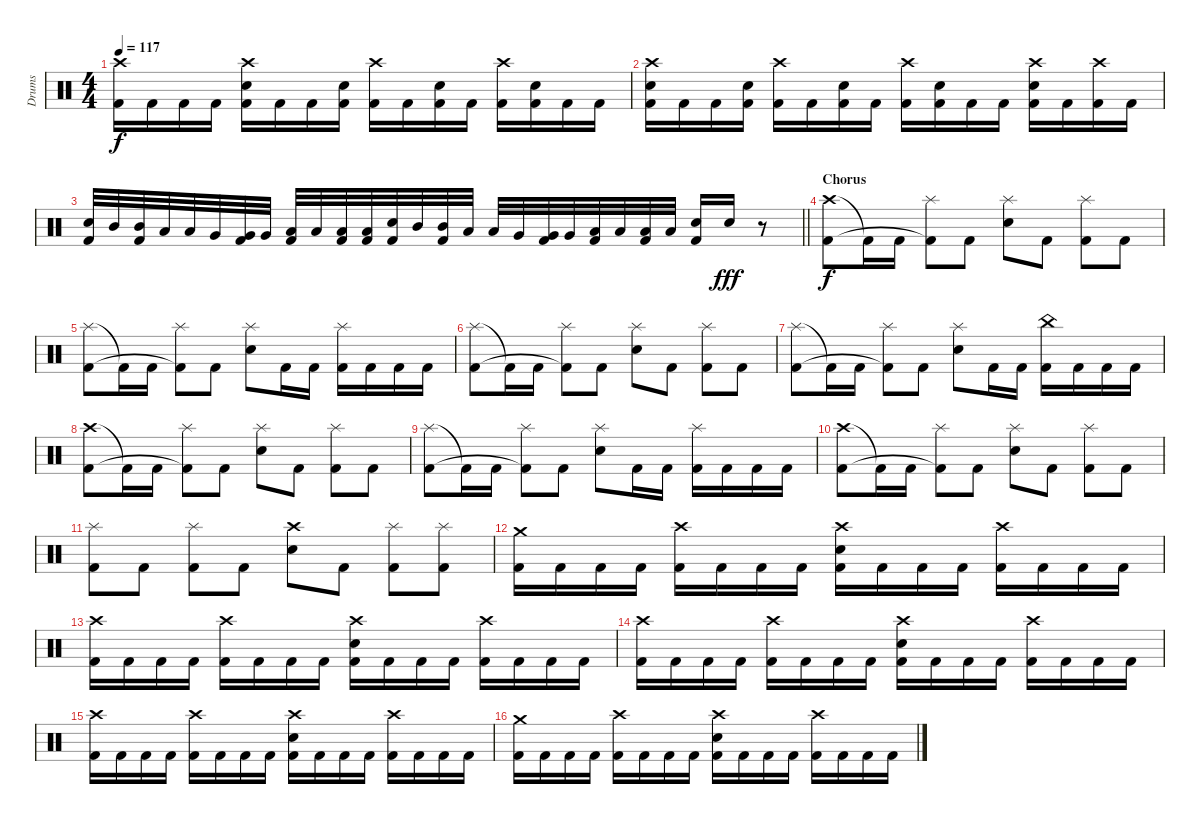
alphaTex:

\track ("Drums" "Drums") {instrument percussion}
\staff {score}
\articulation defaults
\ts (4 4)
\tempo 117
\clef neutral
\ks c
("Crash high (hit)" "Kick (hit) 2").16{dy f} "Kick (hit) 2".16 "Kick (hit) 2".16 "Kick (hit) 2".16 ("Crash high (hit)" "Electric Snare (hit)" "Kick (hit) 2").16 "Kick (hit) 2".16 "Kick (hit) 2".16 ("Electric Snare (hit)" "Kick (hit) 2").16 ("Crash high (hit)" "Kick (hit) 2").16 "Kick (hit) 2".16 ("Electric Snare (hit)" "Kick (hit) 2").16 "Kick (hit) 2".16 ("Crash high (hit)" "Kick (hit) 2").16 ("Electric Snare (hit)" "Kick (hit) 2").16 "Kick (hit) 2".16 "Kick (hit) 2".16 |
("Crash high (hit)" "Electric Snare (hit)" "Kick (hit) 2").16 "Kick (hit) 2".16 "Kick (hit) 2".16 ("Electric Snare (hit)" "Kick (hit) 2").16 ("Crash high (hit)" "Kick (hit) 2").16 "Kick (hit) 2".16 ("Electric Snare (hit)" "Kick (hit) 2").16 "Kick (hit) 2".16 ("Crash high (hit)" "Kick (hit) 2").16 ("Electric Snare (hit)" "Kick (hit) 2").16 "Kick (hit) 2".16 "Kick (hit) 2".16 ("Crash high (hit)" "Electric Snare (hit)" "Kick (hit) 2").16 "Kick (hit) 2".16 ("Crash high (hit)" "Kick (hit) 2").16 "Kick (hit) 2".16 |
\barLineRight lightlight
("Electric Snare (hit)" "Kick (hit) 2").32 "Mid Tom (hit)".32 ("Mid Tom (hit)" "Kick (hit) 2").32 "Low Tom (hit)".32 "Low Tom (hit)".32 "Very Low Tom (hit)".32 ("Very Low Tom (hit)" "Kick (hit) 2").32 "Very Low Tom (hit)".32 ("Low Floor Tom (hit)" "Kick (hit) 2").32 "Low Floor Tom (hit)".32 ("Low Floor Tom (hit)" "Kick (hit) 2").32 ("Low Floor Tom (hit)" "Kick (hit) 2").32 ("Electric Snare (hit)" "Kick (hit) 2").32 "Mid Tom (hit)".32 ("Mid Tom (hit)" "Kick (hit) 2").32 "Low Tom (hit)".32 "Low Tom (hit)".32 "Very Low Tom (hit)".32 ("Very Low Tom (hit)" "Kick (hit) 2").32 "Very Low Tom (hit)".32 ("Low Floor Tom (hit)" "Kick (hit) 2").32 "Low Floor Tom (hit)".32 ("Low Floor Tom (hit)" "Kick (hit) 2").32 "Low Floor Tom (hit)".32 ("Electric Snare (hit)" "Kick (hit) 2").16 "Electric Snare (hit)".16{dy fff} r.8 |
\section ("" "Chorus")
("Crash high (hit)" "Kick (hit) 2").8{dy f} "Kick (hit) 2"{t}.16 "Kick (hit) 2".16 ("Splash (hit)" "Kick (hit) 2"{t}).8 "Kick (hit) 2".8 ("Splash (hit)" "Electric Snare (hit)").8 "Kick (hit) 2".8 ("Splash (hit)" "Kick (hit) 2").8 "Kick (hit) 2".8 |
("Splash (hit)" "Kick (hit) 2").8 "Kick (hit) 2"{t}.16 "Kick (hit) 2".16 ("Splash (hit)" "Kick (hit) 2"{t}).8 "Kick (hit) 2".8 ("Splash (hit)" "Electric Snare (hit)").8 "Kick (hit) 2".16 "Kick (hit) 2".16 ("Splash (hit)" "Kick (hit) 2").16 "Kick (hit) 2".16 "Kick (hit) 2".16 "Kick (hit) 2".16 |
("Splash (hit)" "Kick (hit) 2").8 "Kick (hit) 2"{t}.16 "Kick (hit) 2".16 ("Splash (hit)" "Kick (hit) 2"{t}).8 "Kick (hit) 2".8 ("Splash (hit)" "Electric Snare (hit)").8 "Kick (hit) 2".8 ("Splash (hit)" "Kick (hit) 2").8 "Kick (hit) 2".8 |
("Splash (hit)" "Kick (hit) 2").8 "Kick (hit) 2"{t}.16 "Kick (hit) 2".16 ("Splash (hit)" "Kick (hit) 2"{t}).8 "Kick (hit) 2".8 ("Splash (hit)" "Electric Snare (hit)").8 "Kick (hit) 2".16 "Kick (hit) 2".16 ("China (hit)" "Kick (hit) 2").16 "Kick (hit) 2".16 "Kick (hit) 2".16 "Kick (hit) 2".16 |
("Crash high (hit)" "Kick (hit) 2").8 "Kick (hit) 2"{t}.16 "Kick (hit) 2".16 ("Splash (hit)" "Kick (hit) 2"{t}).8 "Kick (hit) 2".8 ("Splash (hit)" "Electric Snare (hit)").8 "Kick (hit) 2".8 ("Splash (hit)" "Kick (hit) 2").8 "Kick (hit) 2".8 |
("Splash (hit)" "Kick (hit) 2").8 "Kick (hit) 2"{t}.16 "Kick (hit) 2".16 ("Splash (hit)" "Kick (hit) 2"{t}).8 "Kick (hit) 2".8 ("Splash (hit)" "Electric Snare (hit)").8 "Kick (hit) 2".16 "Kick (hit) 2".16 ("Splash (hit)" "Kick (hit) 2").16 "Kick (hit) 2".16 "Kick (hit) 2".16 "Kick (hit) 2".16 |
("Crash high (hit)" "Kick (hit) 2").8 "Kick (hit) 2"{t}.16 "Kick (hit) 2".16 ("Splash (hit)" "Kick (hit) 2"{t}).8 "Kick (hit) 2".8 ("Splash (hit)" "Electric Snare (hit)").8 "Kick (hit) 2".8 ("Splash (hit)" "Kick (hit) 2").8 "Kick (hit) 2".8 |
("Splash (hit)" "Kick (hit) 2").8 "Kick (hit) 2".8 ("Splash (hit)" "Kick (hit) 2").8 "Kick (hit) 2".8 ("Crash high (hit)" "Electric Snare (hit)").8 "Kick (hit) 2".8 ("Splash (hit)" "Kick (hit) 2").8 ("Splash (hit)" "Kick (hit) 2").8 |
("Crash medium (hit)" "Kick (hit) 2").16 "Kick (hit) 2".16 "Kick (hit) 2".16 "Kick (hit) 2".16 ("Crash high (hit)" "Kick (hit) 2").16 "Kick (hit) 2".16 "Kick (hit) 2".16 "Kick (hit) 2".16 ("Crash high (hit)" "Electric Snare (hit)" "Kick (hit) 2").16 "Kick (hit) 2".16 "Kick (hit) 2".16 "Kick (hit) 2".16 ("Crash high (hit)" "Kick (hit) 2").16 "Kick (hit) 2".16 "Kick (hit) 2".16 "Kick (hit) 2".16 |
("Crash high (hit)" "Kick (hit) 2").16 "Kick (hit) 2".16 "Kick (hit) 2".16 "Kick (hit) 2".16 ("Crash high (hit)" "Kick (hit) 2").16 "Kick (hit) 2".16 "Kick (hit) 2".16 "Kick (hit) 2".16 ("Crash high (hit)" "Electric Snare (hit)" "Kick (hit) 2").16 "Kick (hit) 2".16 "Kick (hit) 2".16 "Kick (hit) 2".16 ("Crash high (hit)" "Kick (hit) 2").16 "Kick (hit) 2".16 "Kick (hit) 2".16 "Kick (hit) 2".16 |
("Crash high (hit)" "Kick (hit) 2").16 "Kick (hit) 2".16 "Kick (hit) 2".16 "Kick (hit) 2".16 ("Crash high (hit)" "Kick (hit) 2").16 "Kick (hit) 2".16 "Kick (hit) 2".16 "Kick (hit) 2".16 ("Crash high (hit)" "Electric Snare (hit)" "Kick (hit) 2").16 "Kick (hit) 2".16 "Kick (hit) 2".16 "Kick (hit) 2".16 ("Crash high (hit)" "Kick (hit) 2").16 "Kick (hit) 2".16 "Kick (hit) 2".16 "Kick (hit) 2".16 |
("Crash high (hit)" "Kick (hit) 2").16 "Kick (hit) 2".16 "Kick (hit) 2".16 "Kick (hit) 2".16 ("Crash high (hit)" "Kick (hit) 2").16 "Kick (hit) 2".16 "Kick (hit) 2".16 "Kick (hit) 2".16 ("Crash high (hit)" "Electric Snare (hit)" "Kick (hit) 2").16 "Kick (hit) 2".16 "Kick (hit) 2".16 "Kick (hit) 2".16 ("Crash high (hit)" "Kick (hit) 2").16 "Kick (hit) 2".16 "Kick (hit) 2".16 "Kick (hit) 2".16 |
("Crash medium (hit)" "Kick (hit) 2").16 "Kick (hit) 2".16 "Kick (hit) 2".16 "Kick (hit) 2".16 ("Crash high (hit)" "Kick (hit) 2").16 "Kick (hit) 2".16 "Kick (hit) 2".16 "Kick (hit) 2".16 ("Crash high (hit)" "Electric Snare (hit)" "Kick (hit) 2").16 "Kick (hit) 2".16 "Kick (hit) 2".16 "Kick (hit) 2".16 ("Crash high (hit)" "Kick (hit) 2").16 "Kick (hit) 2".16 "Kick (hit) 2".16 "Kick (hit) 2".16
